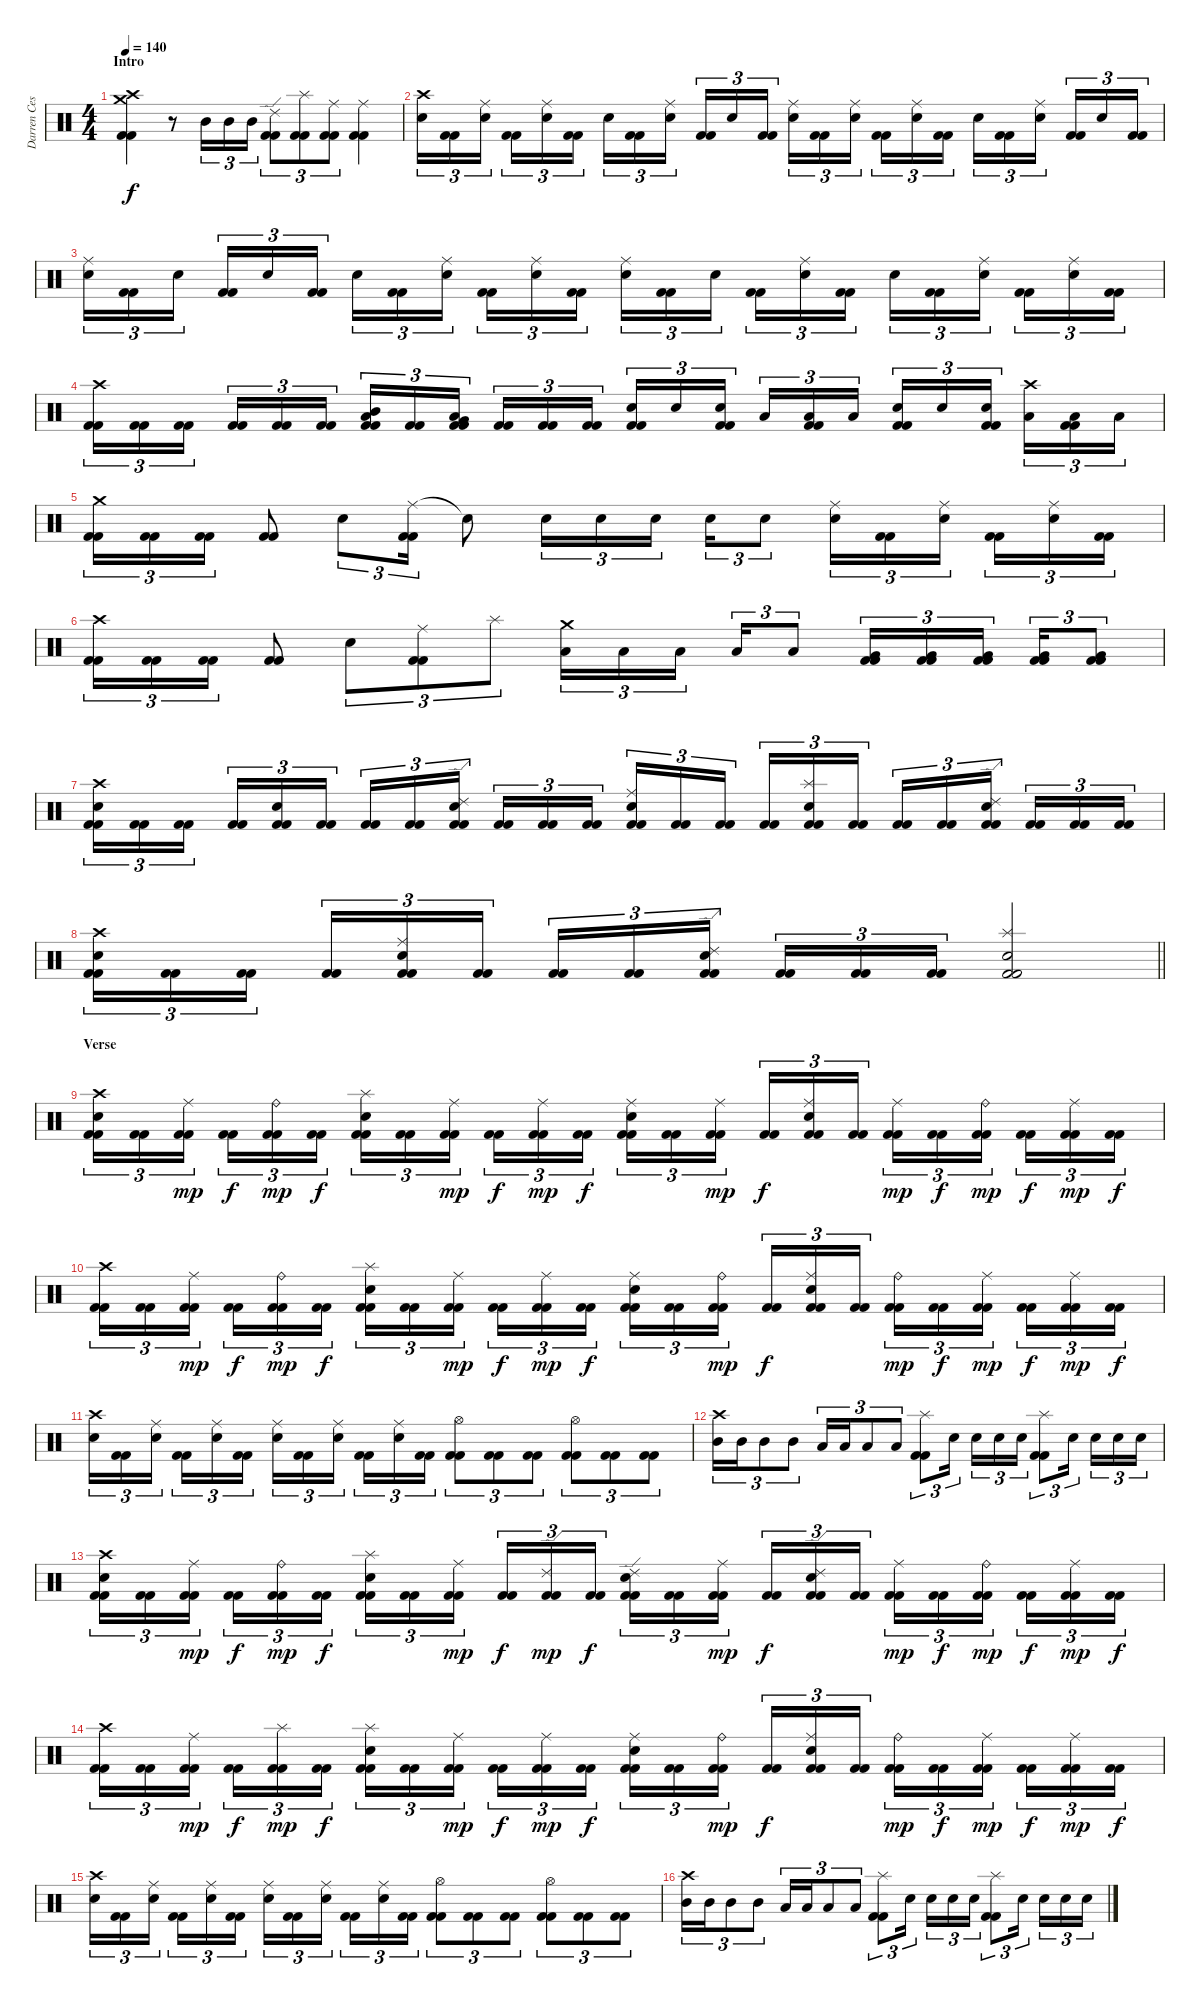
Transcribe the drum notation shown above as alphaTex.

\track ("Darren Cesca" "Darren Ces") {instrument percussion}
\staff {score}
\articulation defaults
\ts (4 4)
\section ("" "Intro")
\tempo 140
\clef neutral
\ks c
("Crash medium (hit)" "Crash high (hit)" "Kick (hit) 2" "Kick (hit) 2").4{dy f} r.8 "Mid Tom (hit)".16{tu (3 2)} "Mid Tom (hit)".16{tu (3 2)} "Mid Tom (hit)".16{tu (3 2)} ("Ride (edge) 2" "Kick (hit) 2" "Kick (hit) 2").8{tu (3 2)} ("Splash (hit)" "Kick (hit) 2" "Kick (hit) 2").8{tu (3 2)} ("Ride (middle)" "Kick (hit) 2" "Kick (hit) 2").8{tu (3 2)} ("Ride (middle)" "Kick (hit) 2" "Kick (hit) 2").4 |
("Crash high (hit)" "Electric Snare (hit)").16{tu (3 2)} ("Kick (hit) 2" "Kick (hit) 2").16{tu (3 2)} ("Ride (middle)" "Electric Snare (hit)").16{tu (3 2) beam splitsecondary} ("Kick (hit) 2" "Kick (hit) 2").16{tu (3 2)} ("Ride (middle)" "Electric Snare (hit)").16{tu (3 2)} ("Kick (hit) 2" "Kick (hit) 2").16{tu (3 2)} "Electric Snare (hit)".16{tu (3 2)} ("Kick (hit) 2" "Kick (hit) 2").16{tu (3 2)} ("Ride (middle)" "Electric Snare (hit)").16{tu (3 2) beam splitsecondary} ("Kick (hit) 2" "Kick (hit) 2").16{tu (3 2)} "Electric Snare (hit)".16{tu (3 2)} ("Kick (hit) 2" "Kick (hit) 2").16{tu (3 2)} ("Ride (middle)" "Electric Snare (hit)").16{tu (3 2)} ("Kick (hit) 2" "Kick (hit) 2").16{tu (3 2)} ("Ride (middle)" "Electric Snare (hit)").16{tu (3 2) beam splitsecondary} ("Kick (hit) 2" "Kick (hit) 2").16{tu (3 2)} ("Ride (middle)" "Electric Snare (hit)").16{tu (3 2)} ("Kick (hit) 2" "Kick (hit) 2").16{tu (3 2)} "Electric Snare (hit)".16{tu (3 2)} ("Kick (hit) 2" "Kick (hit) 2").16{tu (3 2)} ("Ride (middle)" "Electric Snare (hit)").16{tu (3 2) beam splitsecondary} ("Kick (hit) 2" "Kick (hit) 2").16{tu (3 2)} "Electric Snare (hit)".16{tu (3 2)} ("Kick (hit) 2" "Kick (hit) 2").16{tu (3 2)} |
("Ride (middle)" "Electric Snare (hit)").16{tu (3 2)} ("Kick (hit) 2" "Kick (hit) 2").16{tu (3 2)} "Electric Snare (hit)".16{tu (3 2) beam splitsecondary} ("Kick (hit) 2" "Kick (hit) 2").16{tu (3 2)} "Electric Snare (hit)".16{tu (3 2)} ("Kick (hit) 2" "Kick (hit) 2").16{tu (3 2)} "Electric Snare (hit)".16{tu (3 2)} ("Kick (hit) 2" "Kick (hit) 2").16{tu (3 2)} ("Ride (middle)" "Electric Snare (hit)").16{tu (3 2) beam splitsecondary} ("Kick (hit) 2" "Kick (hit) 2").16{tu (3 2)} ("Ride (middle)" "Electric Snare (hit)").16{tu (3 2)} ("Kick (hit) 2" "Kick (hit) 2").16{tu (3 2)} ("Ride (middle)" "Electric Snare (hit)").16{tu (3 2)} ("Kick (hit) 2" "Kick (hit) 2").16{tu (3 2)} "Electric Snare (hit)".16{tu (3 2) beam splitsecondary} ("Kick (hit) 2" "Kick (hit) 2").16{tu (3 2)} ("Ride (middle)" "Electric Snare (hit)").16{tu (3 2)} ("Kick (hit) 2" "Kick (hit) 2").16{tu (3 2)} "Electric Snare (hit)".16{tu (3 2)} ("Kick (hit) 2" "Kick (hit) 2").16{tu (3 2)} ("Ride (middle)" "Electric Snare (hit)").16{tu (3 2) beam splitsecondary} ("Kick (hit) 2" "Kick (hit) 2").16{tu (3 2)} ("Ride (middle)" "Electric Snare (hit)").16{tu (3 2)} ("Kick (hit) 2" "Kick (hit) 2").16{tu (3 2)} |
("Crash high (hit)" "Kick (hit) 2" "Kick (hit) 2").16{tu (3 2)} ("Kick (hit) 2" "Kick (hit) 2").16{tu (3 2)} ("Kick (hit) 2" "Kick (hit) 2").16{tu (3 2) beam splitsecondary} ("Kick (hit) 2" "Kick (hit) 2").16{tu (3 2)} ("Kick (hit) 2" "Kick (hit) 2").16{tu (3 2)} ("Kick (hit) 2" "Kick (hit) 2").16{tu (3 2)} ("Mid Tom (hit)" "Low Tom (hit)" "Kick (hit) 2" "Kick (hit) 2").16{tu (3 2)} ("Kick (hit) 2" "Kick (hit) 2").16{tu (3 2)} ("Low Tom (hit)" "Very Low Tom (hit)" "Kick (hit) 2" "Kick (hit) 2").16{tu (3 2) beam splitsecondary} ("Kick (hit) 2" "Kick (hit) 2").16{tu (3 2)} ("Kick (hit) 2" "Kick (hit) 2").16{tu (3 2)} ("Kick (hit) 2" "Kick (hit) 2").16{tu (3 2)} ("Electric Snare (hit)" "Kick (hit) 2" "Kick (hit) 2").16{tu (3 2)} "Electric Snare (hit)".16{tu (3 2)} ("Electric Snare (hit)" "Kick (hit) 2" "Kick (hit) 2").16{tu (3 2) beam splitsecondary} "Low Tom (hit)".16{tu (3 2)} ("Low Tom (hit)" "Kick (hit) 2" "Kick (hit) 2").16{tu (3 2)} "Low Tom (hit)".16{tu (3 2)} ("Electric Snare (hit)" "Kick (hit) 2" "Kick (hit) 2").16{tu (3 2)} "Electric Snare (hit)".16{tu (3 2)} ("Electric Snare (hit)" "Kick (hit) 2" "Kick (hit) 2").16{tu (3 2) beam splitsecondary} ("Crash high (hit)" "Low Tom (hit)").16{tu (3 2)} ("Low Tom (hit)" "Kick (hit) 2" "Kick (hit) 2").16{tu (3 2)} "Low Tom (hit)".16{tu (3 2)} |
("Crash medium (hit)" "Kick (hit) 2" "Kick (hit) 2").16{tu (3 2)} ("Kick (hit) 2" "Kick (hit) 2").16{tu (3 2)} ("Kick (hit) 2" "Kick (hit) 2").16{tu (3 2)} ("Kick (hit) 2" "Kick (hit) 2").8 "Electric Snare (hit)".8{tu (3 2)} ("Ride (middle)" "Kick (hit) 2" "Kick (hit) 2").16{tu (3 2)} "Snare (hit)"{t}.8 "Electric Snare (hit)".16{tu (3 2)} "Electric Snare (hit)".16{tu (3 2)} "Electric Snare (hit)".16{tu (3 2) beam splitsecondary} "Electric Snare (hit)".16{tu (3 2)} "Electric Snare (hit)".8{tu (3 2)} ("Ride (middle)" "Electric Snare (hit)").16{tu (3 2)} ("Kick (hit) 2" "Kick (hit) 2").16{tu (3 2)} ("Ride (middle)" "Electric Snare (hit)").16{tu (3 2) beam splitsecondary} ("Kick (hit) 2" "Kick (hit) 2").16{tu (3 2)} ("Ride (middle)" "Electric Snare (hit)").16{tu (3 2)} ("Kick (hit) 2" "Kick (hit) 2").16{tu (3 2)} |
("Crash high (hit)" "Kick (hit) 2" "Kick (hit) 2").16{tu (3 2)} ("Kick (hit) 2" "Kick (hit) 2").16{tu (3 2)} ("Kick (hit) 2" "Kick (hit) 2").16{tu (3 2)} ("Kick (hit) 2" "Kick (hit) 2").8 "Electric Snare (hit)".8{tu (3 2)} ("Ride (middle)" "Kick (hit) 2" "Kick (hit) 2").8{tu (3 2)} "Splash (hit)".8{tu (3 2)} ("Crash medium (hit)" "Low Tom (hit)").16{tu (3 2)} "Low Tom (hit)".16{tu (3 2)} "Low Tom (hit)".16{tu (3 2) beam splitsecondary} "Low Tom (hit)".16{tu (3 2)} "Low Tom (hit)".8{tu (3 2)} ("Very Low Tom (hit)" "Kick (hit) 2" "Kick (hit) 2").16{tu (3 2)} ("Very Low Tom (hit)" "Kick (hit) 2" "Kick (hit) 2").16{tu (3 2)} ("Very Low Tom (hit)" "Kick (hit) 2" "Kick (hit) 2").16{tu (3 2) beam splitsecondary} ("Very Low Tom (hit)" "Kick (hit) 2" "Kick (hit) 2").16{tu (3 2)} ("Very Low Tom (hit)" "Kick (hit) 2" "Kick (hit) 2").8{tu (3 2)} |
("Crash high (hit)" "Electric Snare (hit)" "Kick (hit) 2" "Kick (hit) 2").16{tu (3 2)} ("Kick (hit) 2" "Kick (hit) 2").16{tu (3 2)} ("Kick (hit) 2" "Kick (hit) 2").16{tu (3 2) beam splitsecondary} ("Kick (hit) 2" "Kick (hit) 2").16{tu (3 2)} ("Electric Snare (hit)" "Kick (hit) 2" "Kick (hit) 2").16{tu (3 2)} ("Kick (hit) 2" "Kick (hit) 2").16{tu (3 2)} ("Kick (hit) 2" "Kick (hit) 2").16{tu (3 2)} ("Kick (hit) 2" "Kick (hit) 2").16{tu (3 2)} ("Ride (edge) 2" "Electric Snare (hit)" "Kick (hit) 2" "Kick (hit) 2").16{tu (3 2) beam splitsecondary} ("Kick (hit) 2" "Kick (hit) 2").16{tu (3 2)} ("Kick (hit) 2" "Kick (hit) 2").16{tu (3 2)} ("Kick (hit) 2" "Kick (hit) 2").16{tu (3 2)} ("Ride (middle)" "Electric Snare (hit)" "Kick (hit) 2" "Kick (hit) 2").16{tu (3 2)} ("Kick (hit) 2" "Kick (hit) 2").16{tu (3 2)} ("Kick (hit) 2" "Kick (hit) 2").16{tu (3 2) beam splitsecondary} ("Kick (hit) 2" "Kick (hit) 2").16{tu (3 2)} ("Splash (hit)" "Electric Snare (hit)" "Kick (hit) 2" "Kick (hit) 2").16{tu (3 2)} ("Kick (hit) 2" "Kick (hit) 2").16{tu (3 2)} ("Kick (hit) 2" "Kick (hit) 2").16{tu (3 2)} ("Kick (hit) 2" "Kick (hit) 2").16{tu (3 2)} ("Ride (edge) 2" "Electric Snare (hit)" "Kick (hit) 2" "Kick (hit) 2").16{tu (3 2) beam splitsecondary} ("Kick (hit) 2" "Kick (hit) 2").16{tu (3 2)} ("Kick (hit) 2" "Kick (hit) 2").16{tu (3 2)} ("Kick (hit) 2" "Kick (hit) 2").16{tu (3 2)} |
\barLineRight lightlight
("Crash high (hit)" "Electric Snare (hit)" "Kick (hit) 2" "Kick (hit) 2").16{tu (3 2)} ("Kick (hit) 2" "Kick (hit) 2").16{tu (3 2)} ("Kick (hit) 2" "Kick (hit) 2").16{tu (3 2) beam splitsecondary} ("Kick (hit) 2" "Kick (hit) 2").16{tu (3 2)} ("Ride (middle)" "Electric Snare (hit)" "Kick (hit) 2" "Kick (hit) 2").16{tu (3 2)} ("Kick (hit) 2" "Kick (hit) 2").16{tu (3 2)} ("Kick (hit) 2" "Kick (hit) 2").16{tu (3 2)} ("Kick (hit) 2" "Kick (hit) 2").16{tu (3 2)} ("Ride (edge) 2" "Electric Snare (hit)" "Kick (hit) 2" "Kick (hit) 2").16{tu (3 2) beam splitsecondary} ("Kick (hit) 2" "Kick (hit) 2").16{tu (3 2)} ("Kick (hit) 2" "Kick (hit) 2").16{tu (3 2)} ("Kick (hit) 2" "Kick (hit) 2").16{tu (3 2)} ("Splash (hit)" "Electric Snare (hit)" "Kick (hit) 2" "Kick (hit) 2").2 |
\section ("" "Verse")
("Crash high (hit)" "Electric Snare (hit)" "Kick (hit) 2" "Kick (hit) 2").16{tu (3 2)} ("Kick (hit) 2" "Kick (hit) 2").16{tu (3 2)} ("Ride (middle)" "Kick (hit) 2" "Kick (hit) 2").16{tu (3 2) dy mp beam splitsecondary} ("Kick (hit) 2" "Kick (hit) 2").16{tu (3 2) dy f} ("Ride (bell)" "Kick (hit) 2" "Kick (hit) 2").16{tu (3 2) dy mp} ("Kick (hit) 2" "Kick (hit) 2").16{tu (3 2) dy f} ("Splash (hit)" "Electric Snare (hit)" "Kick (hit) 2" "Kick (hit) 2").16{tu (3 2)} ("Kick (hit) 2" "Kick (hit) 2").16{tu (3 2)} ("Ride (middle)" "Kick (hit) 2" "Kick (hit) 2").16{tu (3 2) dy mp beam splitsecondary} ("Kick (hit) 2" "Kick (hit) 2").16{tu (3 2) dy f} ("Ride (middle)" "Kick (hit) 2" "Kick (hit) 2").16{tu (3 2) dy mp} ("Kick (hit) 2" "Kick (hit) 2").16{tu (3 2) dy f} ("Ride (middle)" "Electric Snare (hit)" "Kick (hit) 2" "Kick (hit) 2").16{tu (3 2)} ("Kick (hit) 2" "Kick (hit) 2").16{tu (3 2)} ("Ride (middle)" "Kick (hit) 2" "Kick (hit) 2").16{tu (3 2) dy mp beam splitsecondary} ("Kick (hit) 2" "Kick (hit) 2").16{tu (3 2) dy f} ("Ride (middle)" "Electric Snare (hit)" "Kick (hit) 2" "Kick (hit) 2").16{tu (3 2)} ("Kick (hit) 2" "Kick (hit) 2").16{tu (3 2)} ("Ride (middle)" "Kick (hit) 2" "Kick (hit) 2").16{tu (3 2) dy mp} ("Kick (hit) 2" "Kick (hit) 2").16{tu (3 2) dy f} ("Ride (bell)" "Kick (hit) 2" "Kick (hit) 2").16{tu (3 2) dy mp beam splitsecondary} ("Kick (hit) 2" "Kick (hit) 2").16{tu (3 2) dy f} ("Ride (middle)" "Kick (hit) 2" "Kick (hit) 2").16{tu (3 2) dy mp} ("Kick (hit) 2" "Kick (hit) 2").16{tu (3 2) dy f} |
("Crash high (hit)" "Kick (hit) 2" "Kick (hit) 2").16{tu (3 2)} ("Kick (hit) 2" "Kick (hit) 2").16{tu (3 2)} ("Ride (middle)" "Kick (hit) 2" "Kick (hit) 2").16{tu (3 2) dy mp beam splitsecondary} ("Kick (hit) 2" "Kick (hit) 2").16{tu (3 2) dy f} ("Ride (bell)" "Kick (hit) 2" "Kick (hit) 2").16{tu (3 2) dy mp} ("Kick (hit) 2" "Kick (hit) 2").16{tu (3 2) dy f} ("Splash (hit)" "Electric Snare (hit)" "Kick (hit) 2" "Kick (hit) 2").16{tu (3 2)} ("Kick (hit) 2" "Kick (hit) 2").16{tu (3 2)} ("Ride (middle)" "Kick (hit) 2" "Kick (hit) 2").16{tu (3 2) dy mp beam splitsecondary} ("Kick (hit) 2" "Kick (hit) 2").16{tu (3 2) dy f} ("Ride (middle)" "Kick (hit) 2" "Kick (hit) 2").16{tu (3 2) dy mp} ("Kick (hit) 2" "Kick (hit) 2").16{tu (3 2) dy f} ("Ride (middle)" "Electric Snare (hit)" "Kick (hit) 2" "Kick (hit) 2").16{tu (3 2)} ("Kick (hit) 2" "Kick (hit) 2").16{tu (3 2)} ("Ride (bell)" "Kick (hit) 2" "Kick (hit) 2").16{tu (3 2) dy mp beam splitsecondary} ("Kick (hit) 2" "Kick (hit) 2").16{tu (3 2) dy f} ("Ride (middle)" "Electric Snare (hit)" "Kick (hit) 2" "Kick (hit) 2").16{tu (3 2)} ("Kick (hit) 2" "Kick (hit) 2").16{tu (3 2)} ("Ride (bell)" "Kick (hit) 2" "Kick (hit) 2").16{tu (3 2) dy mp} ("Kick (hit) 2" "Kick (hit) 2").16{tu (3 2) dy f} ("Ride (middle)" "Kick (hit) 2" "Kick (hit) 2").16{tu (3 2) dy mp beam splitsecondary} ("Kick (hit) 2" "Kick (hit) 2").16{tu (3 2) dy f} ("Ride (middle)" "Kick (hit) 2" "Kick (hit) 2").16{tu (3 2) dy mp} ("Kick (hit) 2" "Kick (hit) 2").16{tu (3 2) dy f} |
("Crash high (hit)" "Electric Snare (hit)").16{tu (3 2)} ("Kick (hit) 2" "Kick (hit) 2").16{tu (3 2)} ("Ride (middle)" "Electric Snare (hit)").16{tu (3 2) beam splitsecondary} ("Kick (hit) 2" "Kick (hit) 2").16{tu (3 2)} ("Ride (middle)" "Electric Snare (hit)").16{tu (3 2)} ("Kick (hit) 2" "Kick (hit) 2").16{tu (3 2)} ("Ride (middle)" "Electric Snare (hit)").16{tu (3 2)} ("Kick (hit) 2" "Kick (hit) 2").16{tu (3 2)} ("Ride (middle)" "Electric Snare (hit)").16{tu (3 2) beam splitsecondary} ("Kick (hit) 2" "Kick (hit) 2").16{tu (3 2)} ("Ride (middle)" "Electric Snare (hit)").16{tu (3 2)} ("Kick (hit) 2" "Kick (hit) 2").16{tu (3 2)} ("Hi-Hat (open)" "Kick (hit) 2" "Kick (hit) 2").8{tu (3 2)} ("Kick (hit) 2" "Kick (hit) 2").8{tu (3 2)} ("Kick (hit) 2" "Kick (hit) 2").8{tu (3 2)} ("Hi-Hat (open)" "Kick (hit) 2" "Kick (hit) 2").8{tu (3 2)} ("Kick (hit) 2" "Kick (hit) 2").8{tu (3 2)} ("Kick (hit) 2" "Kick (hit) 2").8{tu (3 2)} |
("Crash high (hit)" "Mid Tom (hit)").16{tu (3 2)} "Mid Tom (hit)".16{tu (3 2)} "Mid Tom (hit)".8{tu (3 2)} "Mid Tom (hit)".8{tu (3 2)} "Low Tom (hit)".16{tu (3 2)} "Low Tom (hit)".16{tu (3 2)} "Low Tom (hit)".8{tu (3 2)} "Low Tom (hit)".8{tu (3 2)} ("Splash (hit)" "Kick (hit) 2" "Kick (hit) 2").8{tu (3 2)} "Electric Snare (hit)".16{tu (3 2) beam splitsecondary} "Electric Snare (hit)".16{tu (3 2)} "Electric Snare (hit)".16{tu (3 2)} "Electric Snare (hit)".16{tu (3 2)} ("Splash (hit)" "Kick (hit) 2" "Kick (hit) 2").8{tu (3 2)} "Electric Snare (hit)".16{tu (3 2) beam splitsecondary} "Electric Snare (hit)".16{tu (3 2)} "Electric Snare (hit)".16{tu (3 2)} "Electric Snare (hit)".16{tu (3 2)} |
("Crash high (hit)" "Electric Snare (hit)" "Kick (hit) 2" "Kick (hit) 2").16{tu (3 2)} ("Kick (hit) 2" "Kick (hit) 2").16{tu (3 2)} ("Ride (middle)" "Kick (hit) 2" "Kick (hit) 2").16{tu (3 2) dy mp beam splitsecondary} ("Kick (hit) 2" "Kick (hit) 2").16{tu (3 2) dy f} ("Ride (bell)" "Kick (hit) 2" "Kick (hit) 2").16{tu (3 2) dy mp} ("Kick (hit) 2" "Kick (hit) 2").16{tu (3 2) dy f} ("Splash (hit)" "Electric Snare (hit)" "Kick (hit) 2" "Kick (hit) 2").16{tu (3 2)} ("Kick (hit) 2" "Kick (hit) 2").16{tu (3 2)} ("Ride (middle)" "Kick (hit) 2" "Kick (hit) 2").16{tu (3 2) dy mp beam splitsecondary} ("Kick (hit) 2" "Kick (hit) 2").16{tu (3 2) dy f} ("Ride (edge) 2" "Kick (hit) 2" "Kick (hit) 2").16{tu (3 2) dy mp} ("Kick (hit) 2" "Kick (hit) 2").16{tu (3 2) dy f} ("Ride (edge) 2" "Electric Snare (hit)" "Kick (hit) 2" "Kick (hit) 2").16{tu (3 2)} ("Kick (hit) 2" "Kick (hit) 2").16{tu (3 2)} ("Ride (middle)" "Kick (hit) 2" "Kick (hit) 2").16{tu (3 2) dy mp beam splitsecondary} ("Kick (hit) 2" "Kick (hit) 2").16{tu (3 2) dy f} ("Ride (edge) 2" "Electric Snare (hit)" "Kick (hit) 2" "Kick (hit) 2").16{tu (3 2)} ("Kick (hit) 2" "Kick (hit) 2").16{tu (3 2)} ("Ride (middle)" "Kick (hit) 2" "Kick (hit) 2").16{tu (3 2) dy mp} ("Kick (hit) 2" "Kick (hit) 2").16{tu (3 2) dy f} ("Ride (bell)" "Kick (hit) 2" "Kick (hit) 2").16{tu (3 2) dy mp beam splitsecondary} ("Kick (hit) 2" "Kick (hit) 2").16{tu (3 2) dy f} ("Ride (middle)" "Kick (hit) 2" "Kick (hit) 2").16{tu (3 2) dy mp} ("Kick (hit) 2" "Kick (hit) 2").16{tu (3 2) dy f} |
("Crash high (hit)" "Kick (hit) 2" "Kick (hit) 2").16{tu (3 2)} ("Kick (hit) 2" "Kick (hit) 2").16{tu (3 2)} ("Ride (middle)" "Kick (hit) 2" "Kick (hit) 2").16{tu (3 2) dy mp beam splitsecondary} ("Kick (hit) 2" "Kick (hit) 2").16{tu (3 2) dy f} ("Splash (hit)" "Kick (hit) 2" "Kick (hit) 2").16{tu (3 2) dy mp} ("Kick (hit) 2" "Kick (hit) 2").16{tu (3 2) dy f} ("Splash (hit)" "Electric Snare (hit)" "Kick (hit) 2" "Kick (hit) 2").16{tu (3 2)} ("Kick (hit) 2" "Kick (hit) 2").16{tu (3 2)} ("Ride (middle)" "Kick (hit) 2" "Kick (hit) 2").16{tu (3 2) dy mp beam splitsecondary} ("Kick (hit) 2" "Kick (hit) 2").16{tu (3 2) dy f} ("Ride (middle)" "Kick (hit) 2" "Kick (hit) 2").16{tu (3 2) dy mp} ("Kick (hit) 2" "Kick (hit) 2").16{tu (3 2) dy f} ("Ride (middle)" "Electric Snare (hit)" "Kick (hit) 2" "Kick (hit) 2").16{tu (3 2)} ("Kick (hit) 2" "Kick (hit) 2").16{tu (3 2)} ("Ride (bell)" "Kick (hit) 2" "Kick (hit) 2").16{tu (3 2) dy mp beam splitsecondary} ("Kick (hit) 2" "Kick (hit) 2").16{tu (3 2) dy f} ("Ride (middle)" "Electric Snare (hit)" "Kick (hit) 2" "Kick (hit) 2").16{tu (3 2)} ("Kick (hit) 2" "Kick (hit) 2").16{tu (3 2)} ("Ride (bell)" "Kick (hit) 2" "Kick (hit) 2").16{tu (3 2) dy mp} ("Kick (hit) 2" "Kick (hit) 2").16{tu (3 2) dy f} ("Ride (middle)" "Kick (hit) 2" "Kick (hit) 2").16{tu (3 2) dy mp beam splitsecondary} ("Kick (hit) 2" "Kick (hit) 2").16{tu (3 2) dy f} ("Ride (middle)" "Kick (hit) 2" "Kick (hit) 2").16{tu (3 2) dy mp} ("Kick (hit) 2" "Kick (hit) 2").16{tu (3 2) dy f} |
("Crash high (hit)" "Electric Snare (hit)").16{tu (3 2)} ("Kick (hit) 2" "Kick (hit) 2").16{tu (3 2)} ("Ride (middle)" "Electric Snare (hit)").16{tu (3 2) beam splitsecondary} ("Kick (hit) 2" "Kick (hit) 2").16{tu (3 2)} ("Ride (middle)" "Electric Snare (hit)").16{tu (3 2)} ("Kick (hit) 2" "Kick (hit) 2").16{tu (3 2)} ("Ride (middle)" "Electric Snare (hit)").16{tu (3 2)} ("Kick (hit) 2" "Kick (hit) 2").16{tu (3 2)} ("Ride (middle)" "Electric Snare (hit)").16{tu (3 2) beam splitsecondary} ("Kick (hit) 2" "Kick (hit) 2").16{tu (3 2)} ("Ride (middle)" "Electric Snare (hit)").16{tu (3 2)} ("Kick (hit) 2" "Kick (hit) 2").16{tu (3 2)} ("Hi-Hat (open)" "Kick (hit) 2" "Kick (hit) 2").8{tu (3 2)} ("Kick (hit) 2" "Kick (hit) 2").8{tu (3 2)} ("Kick (hit) 2" "Kick (hit) 2").8{tu (3 2)} ("Hi-Hat (open)" "Kick (hit) 2" "Kick (hit) 2").8{tu (3 2)} ("Kick (hit) 2" "Kick (hit) 2").8{tu (3 2)} ("Kick (hit) 2" "Kick (hit) 2").8{tu (3 2)} |
("Crash high (hit)" "Mid Tom (hit)").16{tu (3 2)} "Mid Tom (hit)".16{tu (3 2)} "Mid Tom (hit)".8{tu (3 2)} "Mid Tom (hit)".8{tu (3 2)} "Low Tom (hit)".16{tu (3 2)} "Low Tom (hit)".16{tu (3 2)} "Low Tom (hit)".8{tu (3 2)} "Low Tom (hit)".8{tu (3 2)} ("Splash (hit)" "Kick (hit) 2" "Kick (hit) 2").8{tu (3 2)} "Electric Snare (hit)".16{tu (3 2) beam splitsecondary} "Electric Snare (hit)".16{tu (3 2)} "Electric Snare (hit)".16{tu (3 2)} "Electric Snare (hit)".16{tu (3 2)} ("Splash (hit)" "Kick (hit) 2" "Kick (hit) 2").8{tu (3 2)} "Electric Snare (hit)".16{tu (3 2) beam splitsecondary} "Electric Snare (hit)".16{tu (3 2)} "Electric Snare (hit)".16{tu (3 2)} "Electric Snare (hit)".16{tu (3 2)}
